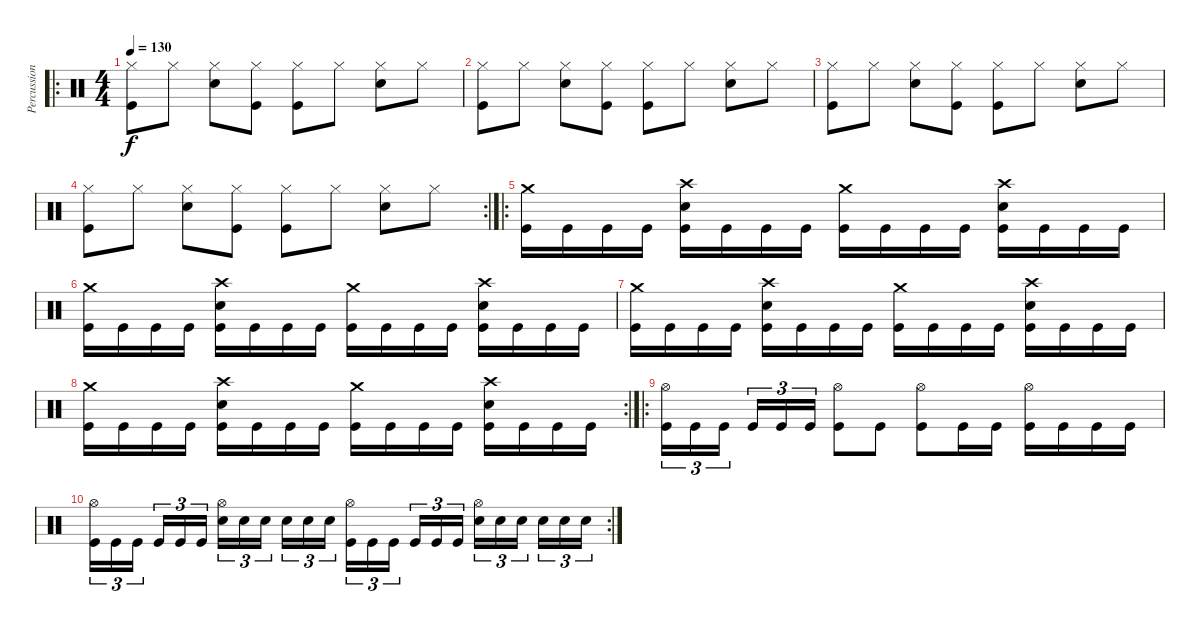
\track ("Percussion" "Percussion") {instrument percussion}
\staff {score}
\articulation defaults
\ro
\ts (4 4)
\tempo 130
\clef neutral
\ks c
("Hi-Hat (closed)" "Kick (hit)").8{dy f} "Hi-Hat (closed)".8 ("Hi-Hat (closed)" "Snare (hit) 2").8 ("Hi-Hat (closed)" "Kick (hit)").8 ("Hi-Hat (closed)" "Kick (hit)").8 "Hi-Hat (closed)".8 ("Hi-Hat (closed)" "Snare (hit) 2").8 "Hi-Hat (closed)".8 |
("Hi-Hat (closed)" "Kick (hit)").8 "Hi-Hat (closed)".8 ("Hi-Hat (closed)" "Snare (hit) 2").8 ("Hi-Hat (closed)" "Kick (hit)").8 ("Hi-Hat (closed)" "Kick (hit)").8 "Hi-Hat (closed)".8 ("Hi-Hat (closed)" "Snare (hit) 2").8 "Hi-Hat (closed)".8 |
("Hi-Hat (closed)" "Kick (hit)").8 "Hi-Hat (closed)".8 ("Hi-Hat (closed)" "Snare (hit) 2").8 ("Hi-Hat (closed)" "Kick (hit)").8 ("Hi-Hat (closed)" "Kick (hit)").8 "Hi-Hat (closed)".8 ("Hi-Hat (closed)" "Snare (hit) 2").8 "Hi-Hat (closed)".8 |
\rc 2
("Hi-Hat (closed)" "Kick (hit)").8 "Hi-Hat (closed)".8 ("Hi-Hat (closed)" "Snare (hit) 2").8 ("Hi-Hat (closed)" "Kick (hit)").8 ("Hi-Hat (closed)" "Kick (hit)").8 "Hi-Hat (closed)".8 ("Hi-Hat (closed)" "Snare (hit) 2").8 "Hi-Hat (closed)".8 |
\ro
("Crash medium (hit)" "Kick (hit)").16 "Kick (hit)".16 "Kick (hit)".16 "Kick (hit)".16 ("Crash high (hit)" "Snare (hit) 2" "Kick (hit)").16 "Kick (hit)".16 "Kick (hit)".16 "Kick (hit)".16 ("Crash medium (hit)" "Kick (hit)").16 "Kick (hit)".16 "Kick (hit)".16 "Kick (hit)".16 ("Crash high (hit)" "Snare (hit) 2" "Kick (hit)").16 "Kick (hit)".16 "Kick (hit)".16 "Kick (hit)".16 |
("Crash medium (hit)" "Kick (hit)").16 "Kick (hit)".16 "Kick (hit)".16 "Kick (hit)".16 ("Crash high (hit)" "Snare (hit) 2" "Kick (hit)").16 "Kick (hit)".16 "Kick (hit)".16 "Kick (hit)".16 ("Crash medium (hit)" "Kick (hit)").16 "Kick (hit)".16 "Kick (hit)".16 "Kick (hit)".16 ("Crash high (hit)" "Snare (hit) 2" "Kick (hit)").16 "Kick (hit)".16 "Kick (hit)".16 "Kick (hit)".16 |
("Crash medium (hit)" "Kick (hit)").16 "Kick (hit)".16 "Kick (hit)".16 "Kick (hit)".16 ("Crash high (hit)" "Snare (hit) 2" "Kick (hit)").16 "Kick (hit)".16 "Kick (hit)".16 "Kick (hit)".16 ("Crash medium (hit)" "Kick (hit)").16 "Kick (hit)".16 "Kick (hit)".16 "Kick (hit)".16 ("Crash high (hit)" "Snare (hit) 2" "Kick (hit)").16 "Kick (hit)".16 "Kick (hit)".16 "Kick (hit)".16 |
\rc 2
("Crash medium (hit)" "Kick (hit)").16 "Kick (hit)".16 "Kick (hit)".16 "Kick (hit)".16 ("Crash high (hit)" "Snare (hit) 2" "Kick (hit)").16 "Kick (hit)".16 "Kick (hit)".16 "Kick (hit)".16 ("Crash medium (hit)" "Kick (hit)").16 "Kick (hit)".16 "Kick (hit)".16 "Kick (hit)".16 ("Crash high (hit)" "Snare (hit) 2" "Kick (hit)").16 "Kick (hit)".16 "Kick (hit)".16 "Kick (hit)".16 |
\ro
("Hi-Hat (open)" "Kick (hit)").16{tu (3 2)} "Kick (hit)".16{tu (3 2)} "Kick (hit)".16{tu (3 2) beam splitsecondary} "Kick (hit)".16{tu (3 2)} "Kick (hit)".16{tu (3 2)} "Kick (hit)".16{tu (3 2)} ("Hi-Hat (open)" "Kick (hit)").8 "Kick (hit)".8 ("Hi-Hat (open)" "Kick (hit)").8 "Kick (hit)".16 "Kick (hit)".16 ("Hi-Hat (open)" "Kick (hit)").16 "Kick (hit)".16 "Kick (hit)".16 "Kick (hit)".16 |
\rc 2
("Hi-Hat (open)" "Kick (hit)").16{tu (3 2)} "Kick (hit)".16{tu (3 2)} "Kick (hit)".16{tu (3 2) beam splitsecondary} "Kick (hit)".16{tu (3 2)} "Kick (hit)".16{tu (3 2)} "Kick (hit)".16{tu (3 2)} ("Hi-Hat (open)" "Snare (hit) 2").16{tu (3 2)} "Snare (hit) 2".16{tu (3 2)} "Snare (hit) 2".16{tu (3 2) beam splitsecondary} "Snare (hit) 2".16{tu (3 2)} "Snare (hit) 2".16{tu (3 2)} "Snare (hit) 2".16{tu (3 2)} ("Hi-Hat (open)" "Kick (hit)").16{tu (3 2)} "Kick (hit)".16{tu (3 2)} "Kick (hit)".16{tu (3 2) beam splitsecondary} "Kick (hit)".16{tu (3 2)} "Kick (hit)".16{tu (3 2)} "Kick (hit)".16{tu (3 2)} ("Hi-Hat (open)" "Snare (hit) 2").16{tu (3 2)} "Snare (hit) 2".16{tu (3 2)} "Snare (hit) 2".16{tu (3 2) beam splitsecondary} "Snare (hit) 2".16{tu (3 2)} "Snare (hit) 2".16{tu (3 2)} "Snare (hit) 2".16{tu (3 2)}
